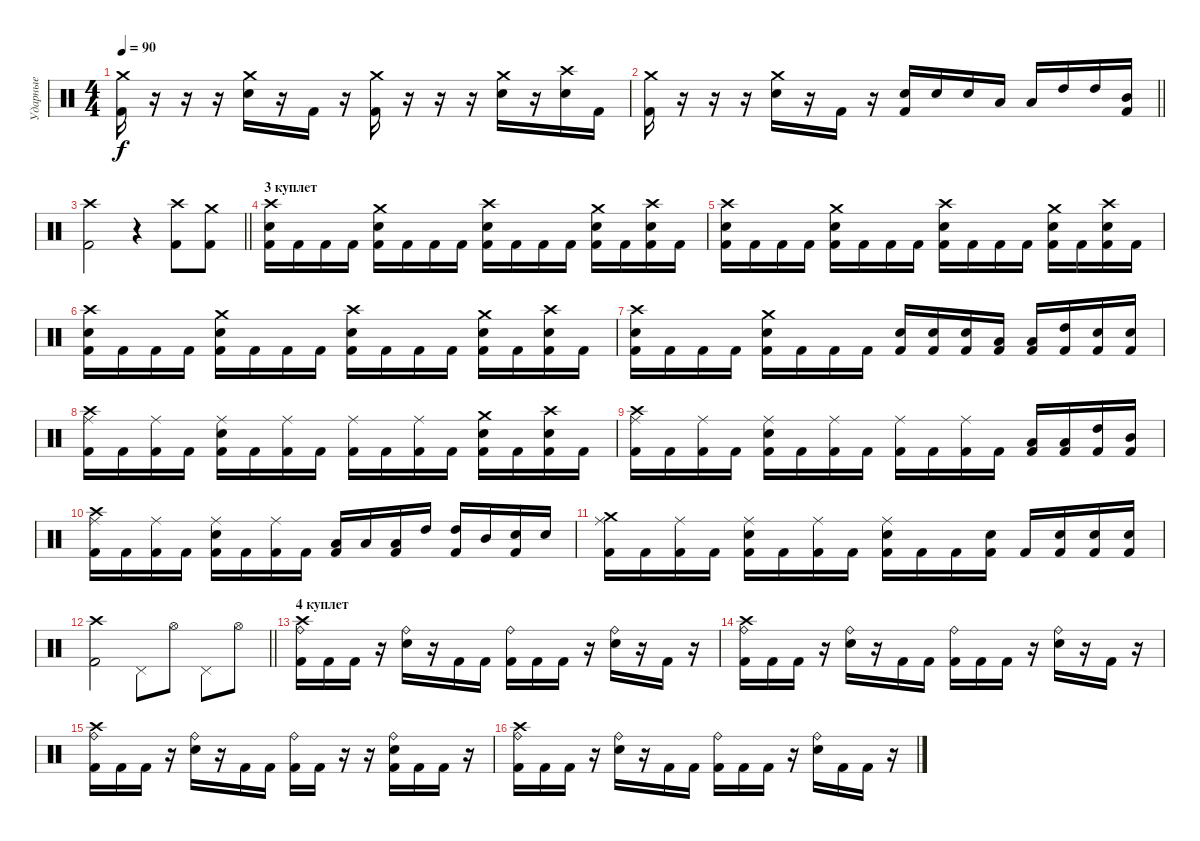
\track ("Ударные" "Ударные") {instrument percussion}
\staff {score}
\articulation defaults
\ts (4 4)
\tempo 90
\clef neutral
\ks c
("Crash medium (hit)" "Kick (hit) 2").16{dy f} r.16 r.16 r.16 ("Crash medium (hit)" "Snare (hit) 2").16 r.16 "Kick (hit) 2".16 r.16 ("Crash medium (hit)" "Kick (hit) 2").16 r.16 r.16 r.16 ("Crash medium (hit)" "Snare (hit) 2").16 r.16 ("Crash high (hit)" "Snare (hit) 2").16 "Kick (hit) 2".16 |
\barLineRight lightlight
("Crash medium (hit)" "Kick (hit) 2").16 r.16 r.16 r.16 ("Crash medium (hit)" "Snare (hit) 2").16 r.16 "Kick (hit) 2".16 r.16 ("Snare (hit) 2" "Kick (hit) 2").16 "Snare (hit) 2".16 "Snare (hit) 2".16 "Low Tom (hit)".16 "Low Tom (hit)".16 "High Tom (hit)".16 "High Tom (hit)".16 ("Mid Tom (hit)" "Kick (hit) 2").16 |
\barLineRight lightlight
("Crash high (hit)" "Kick (hit) 2").2 r.4 ("Crash high (hit)" "Kick (hit) 2").8 ("Crash medium (hit)" "Kick (hit) 2").8 |
\section ("" "3 куплет")
("Crash high (hit)" "Snare (hit) 2" "Kick (hit) 2").16 "Kick (hit) 2".16 "Kick (hit) 2".16 "Kick (hit) 2".16 ("Snare (hit) 2" "Crash medium (hit)" "Kick (hit) 2").16 "Kick (hit) 2".16 "Kick (hit) 2".16 "Kick (hit) 2".16 ("Snare (hit) 2" "Crash high (hit)" "Kick (hit) 2").16 "Kick (hit) 2".16 "Kick (hit) 2".16 "Kick (hit) 2".16 ("Snare (hit) 2" "Crash medium (hit)" "Kick (hit) 2").16 "Kick (hit) 2".16 ("Crash high (hit)" "Snare (hit) 2" "Kick (hit) 2").16 "Kick (hit) 2".16 |
("Crash high (hit)" "Snare (hit) 2" "Kick (hit) 2").16 "Kick (hit) 2".16 "Kick (hit) 2".16 "Kick (hit) 2".16 ("Snare (hit) 2" "Crash medium (hit)" "Kick (hit) 2").16 "Kick (hit) 2".16 "Kick (hit) 2".16 "Kick (hit) 2".16 ("Snare (hit) 2" "Crash high (hit)" "Kick (hit) 2").16 "Kick (hit) 2".16 "Kick (hit) 2".16 "Kick (hit) 2".16 ("Snare (hit) 2" "Crash medium (hit)" "Kick (hit) 2").16 "Kick (hit) 2".16 ("Crash high (hit)" "Snare (hit) 2" "Kick (hit) 2").16 "Kick (hit) 2".16 |
("Crash high (hit)" "Snare (hit) 2" "Kick (hit) 2").16 "Kick (hit) 2".16 "Kick (hit) 2".16 "Kick (hit) 2".16 ("Snare (hit) 2" "Crash medium (hit)" "Kick (hit) 2").16 "Kick (hit) 2".16 "Kick (hit) 2".16 "Kick (hit) 2".16 ("Snare (hit) 2" "Crash high (hit)" "Kick (hit) 2").16 "Kick (hit) 2".16 "Kick (hit) 2".16 "Kick (hit) 2".16 ("Snare (hit) 2" "Crash medium (hit)" "Kick (hit) 2").16 "Kick (hit) 2".16 ("Crash high (hit)" "Snare (hit) 2" "Kick (hit) 2").16 "Kick (hit) 2".16 |
("Crash high (hit)" "Snare (hit) 2" "Kick (hit) 2").16 "Kick (hit) 2".16 "Kick (hit) 2".16 "Kick (hit) 2".16 ("Snare (hit) 2" "Crash medium (hit)" "Kick (hit) 2").16 "Kick (hit) 2".16 "Kick (hit) 2".16 "Kick (hit) 2".16 ("Snare (hit) 2" "Kick (hit) 2").16 ("Snare (hit) 2" "Kick (hit) 2").16 ("Snare (hit) 2" "Kick (hit) 2").16 ("Low Tom (hit)" "Kick (hit) 2").16 ("Low Tom (hit)" "Kick (hit) 2").16 ("High Tom (hit)" "Kick (hit) 2").16 ("Snare (hit) 2" "Kick (hit) 2").16 ("Snare (hit) 2" "Kick (hit) 2").16 |
("Crash high (hit)" "Ride (middle)" "Kick (hit) 2").16 "Kick (hit) 2".16 ("Ride (middle)" "Kick (hit) 2").16 "Kick (hit) 2".16 ("Snare (hit) 2" "Ride (middle)" "Kick (hit) 2").16 "Kick (hit) 2".16 ("Ride (middle)" "Kick (hit) 2").16 "Kick (hit) 2".16 ("Ride (middle)" "Kick (hit) 2").16 "Kick (hit) 2".16 ("Ride (middle)" "Kick (hit) 2").16 "Kick (hit) 2".16 ("Snare (hit) 2" "Crash medium (hit)" "Kick (hit) 2").16 "Kick (hit) 2".16 ("Crash high (hit)" "Snare (hit) 2" "Kick (hit) 2").16 "Kick (hit) 2".16 |
("Crash high (hit)" "Ride (middle)" "Kick (hit) 2").16 "Kick (hit) 2".16 ("Ride (middle)" "Kick (hit) 2").16 "Kick (hit) 2".16 ("Snare (hit) 2" "Ride (middle)" "Kick (hit) 2").16 "Kick (hit) 2".16 ("Ride (middle)" "Kick (hit) 2").16 "Kick (hit) 2".16 ("Ride (middle)" "Kick (hit) 2").16 "Kick (hit) 2".16 ("Ride (middle)" "Kick (hit) 2").16 "Kick (hit) 2".16 ("Low Tom (hit)" "Kick (hit) 2").16 ("Low Tom (hit)" "Kick (hit) 2").16 ("High Tom (hit)" "Kick (hit) 2").16 ("Mid Tom (hit)" "Kick (hit) 2").16 |
("Crash high (hit)" "Ride (middle)" "Kick (hit) 2").16 "Kick (hit) 2".16 ("Ride (middle)" "Kick (hit) 2").16 "Kick (hit) 2".16 ("Snare (hit) 2" "Ride (middle)" "Kick (hit) 2").16 "Kick (hit) 2".16 ("Ride (middle)" "Kick (hit) 2").16 "Kick (hit) 2".16 ("Low Tom (hit)" "Kick (hit) 2").16 "Low Tom (hit)".16 ("Low Tom (hit)" "Kick (hit) 2").16 "High Tom (hit)".16 ("High Tom (hit)" "Kick (hit) 2").16 "Mid Tom (hit)".16 ("Snare (hit) 2" "Kick (hit) 2").16 "Snare (hit) 2".16 |
("Crash medium (hit)" "Ride (middle)" "Kick (hit) 2").16 "Kick (hit) 2".16 ("Ride (middle)" "Kick (hit) 2").16 "Kick (hit) 2".16 ("Snare (hit) 2" "Ride (middle)" "Kick (hit) 2").16 "Kick (hit) 2".16 ("Ride (middle)" "Kick (hit) 2").16 "Kick (hit) 2".16 ("Snare (hit) 2" "Ride (middle)" "Kick (hit) 2").16 "Kick (hit) 2".16 "Kick (hit) 2".16 ("Snare (hit) 2" "Kick (hit) 2").16 "Kick (hit) 2".16 ("Snare (hit) 2" "Kick (hit) 2").16 ("Snare (hit) 2" "Kick (hit) 2").16 ("Snare (hit) 2" "Kick (hit) 2").16 |
\barLineRight lightlight
("Crash high (hit)" "Kick (hit) 2").2 "Pedal Hi-Hat (hit)".8 "Hi-Hat (open)".8 "Pedal Hi-Hat (hit)".8 "Hi-Hat (open)".8 |
\section ("" "4 куплет")
("Ride (bell)" "Crash high (hit)" "Kick (hit) 2").16 "Kick (hit) 2".16 "Kick (hit) 2".16 r.16 ("Ride (bell)" "Snare (hit) 2").16 r.16 "Kick (hit) 2".16 "Kick (hit) 2".16 ("Ride (bell)" "Kick (hit) 2").16 "Kick (hit) 2".16 "Kick (hit) 2".16 r.16 ("Ride (bell)" "Snare (hit) 2").16 r.16 "Kick (hit) 2".16 r.16 |
("Ride (bell)" "Crash high (hit)" "Kick (hit) 2").16 "Kick (hit) 2".16 "Kick (hit) 2".16 r.16 ("Ride (bell)" "Snare (hit) 2").16 r.16 "Kick (hit) 2".16 "Kick (hit) 2".16 ("Ride (bell)" "Kick (hit) 2").16 "Kick (hit) 2".16 "Kick (hit) 2".16 r.16 ("Ride (bell)" "Snare (hit) 2").16 r.16 "Kick (hit) 2".16 r.16 |
("Ride (bell)" "Crash high (hit)" "Kick (hit) 2").16 "Kick (hit) 2".16 "Kick (hit) 2".16 r.16 ("Ride (bell)" "Snare (hit) 2").16 r.16 "Kick (hit) 2".16 "Kick (hit) 2".16 ("Ride (bell)" "Kick (hit) 2").16 "Kick (hit) 2".16 r.16 r.16 ("Ride (bell)" "Snare (hit) 2" "Kick (hit) 2").16 "Kick (hit) 2".16 "Kick (hit) 2".16 r.16 |
("Ride (bell)" "Crash high (hit)" "Kick (hit) 2").16 "Kick (hit) 2".16 "Kick (hit) 2".16 r.16 ("Ride (bell)" "Snare (hit) 2").16 r.16 "Kick (hit) 2".16 "Kick (hit) 2".16 ("Ride (bell)" "Kick (hit) 2").16 "Kick (hit) 2".16 "Kick (hit) 2".16 r.16 ("Ride (bell)" "Snare (hit) 2").16 "Kick (hit) 2".16 "Kick (hit) 2".16 r.16
